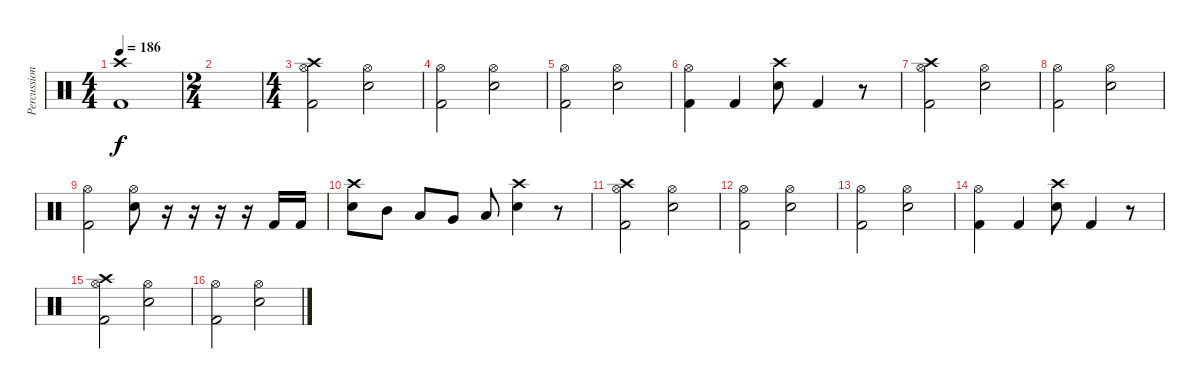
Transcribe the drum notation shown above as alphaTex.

\track ("Percussion" "Percussion") {instrument percussion}
\staff {score}
\articulation defaults
\ts (4 4)
\tempo 186
\clef neutral
\ks c
("Crash high (hit)" "Kick (hit) 2").1{dy f} |
\ts (2 4)
|
\ts (4 4)
("Crash high (hit)" "Hi-Hat (open)" "Kick (hit) 2").2 ("Hi-Hat (open)" "Electric Snare (hit)").2 |
("Hi-Hat (open)" "Kick (hit) 2").2 ("Hi-Hat (open)" "Electric Snare (hit)").2 |
("Hi-Hat (open)" "Kick (hit) 2").2 ("Hi-Hat (open)" "Electric Snare (hit)").2 |
("Hi-Hat (open)" "Kick (hit) 2").4 "Kick (hit) 2".4 ("Crash high (hit)" "Electric Snare (hit)").8 "Kick (hit) 2".4 r.8 |
("Crash high (hit)" "Hi-Hat (open)" "Kick (hit) 2").2 ("Hi-Hat (open)" "Electric Snare (hit)").2 |
("Hi-Hat (open)" "Kick (hit) 2").2 ("Hi-Hat (open)" "Electric Snare (hit)").2 |
("Hi-Hat (open)" "Kick (hit) 2").2 ("Hi-Hat (open)" "Electric Snare (hit)").8 r.16 r.16 r.16 r.16 "Kick (hit) 2".16 "Kick (hit) 2".16 |
("Crash high (hit)" "Electric Snare (hit)").8 "Mid Tom (hit)".8 "Low Tom (hit)".8 "Very Low Tom (hit)".8 "Low Floor Tom (hit)".8 ("Crash high (hit)" "Electric Snare (hit)").4 r.8 |
("Crash high (hit)" "Hi-Hat (open)" "Kick (hit) 2").2 ("Hi-Hat (open)" "Electric Snare (hit)").2 |
("Hi-Hat (open)" "Kick (hit) 2").2 ("Hi-Hat (open)" "Electric Snare (hit)").2 |
("Hi-Hat (open)" "Kick (hit) 2").2 ("Hi-Hat (open)" "Electric Snare (hit)").2 |
("Hi-Hat (open)" "Kick (hit) 2").4 "Kick (hit) 2".4 ("Crash high (hit)" "Electric Snare (hit)").8 "Kick (hit) 2".4 r.8 |
("Crash high (hit)" "Hi-Hat (open)" "Kick (hit) 2").2 ("Hi-Hat (open)" "Electric Snare (hit)").2 |
("Hi-Hat (open)" "Kick (hit) 2").2 ("Hi-Hat (open)" "Electric Snare (hit)").2
